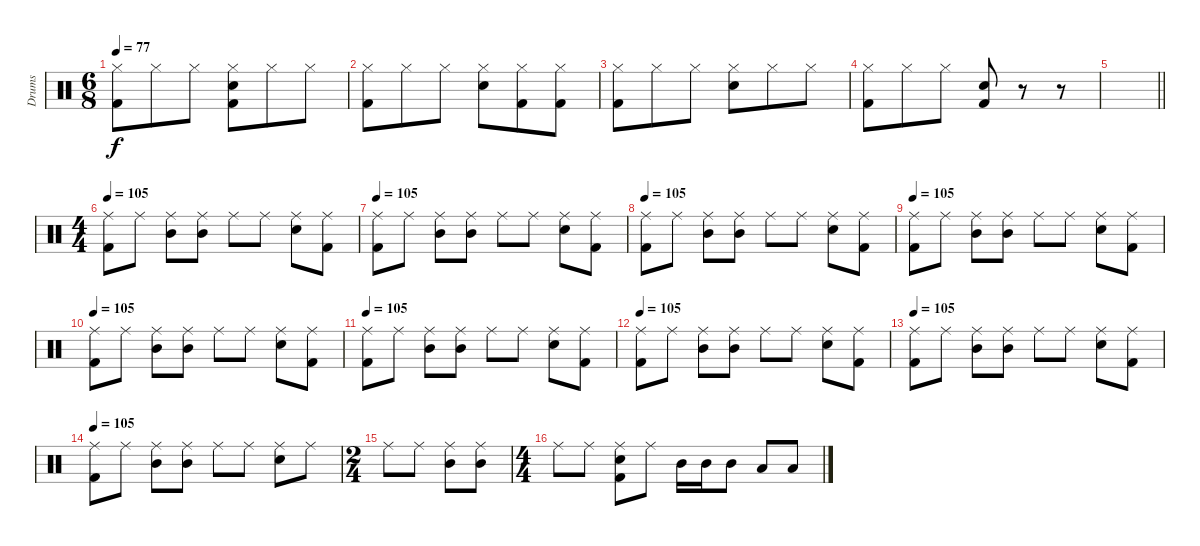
\track ("Drums" "Drums") {instrument percussion}
\staff {score}
\articulation defaults
\ts (6 8)
\tempo 77
\clef neutral
\ks c
("Hi-Hat (closed)" "Kick (hit) 2").8{dy f} "Hi-Hat (closed)".8 "Hi-Hat (closed)".8 ("Hi-Hat (closed)" "Snare (hit) 2" "Kick (hit) 2").8 "Hi-Hat (closed)".8 "Hi-Hat (closed)".8 |
("Hi-Hat (closed)" "Kick (hit) 2").8 "Hi-Hat (closed)".8 "Hi-Hat (closed)".8 ("Hi-Hat (closed)" "Snare (hit) 2").8 ("Hi-Hat (closed)" "Kick (hit) 2").8 ("Hi-Hat (closed)" "Kick (hit) 2").8 |
("Hi-Hat (closed)" "Kick (hit) 2").8 "Hi-Hat (closed)".8 "Hi-Hat (closed)".8 ("Hi-Hat (closed)" "Snare (hit) 2").8 "Hi-Hat (closed)".8 "Hi-Hat (closed)".8 |
("Hi-Hat (closed)" "Kick (hit) 2").8 "Hi-Hat (closed)".8 "Hi-Hat (closed)".8 ("Snare (hit) 2" "Kick (hit) 2").8 r.8 r.8 |
\barLineRight lightlight
|
\ts (4 4)
\tempo 105
("Ride (middle)" "Kick (hit) 2").8 "Ride (middle)".8 ("Ride (middle)" "Mid Tom (hit)").8 ("Ride (middle)" "Mid Tom (hit)").8 "Ride (middle)".8 "Ride (middle)".8 ("Ride (middle)" "Snare (hit) 2").8 ("Ride (middle)" "Kick (hit) 2").8 |
\tempo 105
("Ride (middle)" "Kick (hit) 2").8 "Ride (middle)".8 ("Ride (middle)" "Mid Tom (hit)").8 ("Ride (middle)" "Mid Tom (hit)").8 "Ride (middle)".8 "Ride (middle)".8 ("Ride (middle)" "Snare (hit) 2").8 ("Ride (middle)" "Kick (hit) 2").8 |
\tempo 105
("Ride (middle)" "Kick (hit) 2").8 "Ride (middle)".8 ("Ride (middle)" "Mid Tom (hit)").8 ("Ride (middle)" "Mid Tom (hit)").8 "Ride (middle)".8 "Ride (middle)".8 ("Ride (middle)" "Snare (hit) 2").8 ("Ride (middle)" "Kick (hit) 2").8 |
\tempo 105
("Ride (middle)" "Kick (hit) 2").8 "Ride (middle)".8 ("Ride (middle)" "Mid Tom (hit)").8 ("Ride (middle)" "Mid Tom (hit)").8 "Ride (middle)".8 "Ride (middle)".8 ("Ride (middle)" "Snare (hit) 2").8 ("Ride (middle)" "Kick (hit) 2").8 |
\tempo 105
("Ride (middle)" "Kick (hit) 2").8 "Ride (middle)".8 ("Ride (middle)" "Mid Tom (hit)").8 ("Ride (middle)" "Mid Tom (hit)").8 "Ride (middle)".8 "Ride (middle)".8 ("Ride (middle)" "Snare (hit) 2").8 ("Ride (middle)" "Kick (hit) 2").8 |
\tempo 105
("Ride (middle)" "Kick (hit) 2").8 "Ride (middle)".8 ("Ride (middle)" "Mid Tom (hit)").8 ("Ride (middle)" "Mid Tom (hit)").8 "Ride (middle)".8 "Ride (middle)".8 ("Ride (middle)" "Snare (hit) 2").8 ("Ride (middle)" "Kick (hit) 2").8 |
\tempo 105
("Ride (middle)" "Kick (hit) 2").8 "Ride (middle)".8 ("Ride (middle)" "Mid Tom (hit)").8 ("Ride (middle)" "Mid Tom (hit)").8 "Ride (middle)".8 "Ride (middle)".8 ("Ride (middle)" "Snare (hit) 2").8 ("Ride (middle)" "Kick (hit) 2").8 |
\tempo 105
("Ride (middle)" "Kick (hit) 2").8 "Ride (middle)".8 ("Ride (middle)" "Mid Tom (hit)").8 ("Ride (middle)" "Mid Tom (hit)").8 "Ride (middle)".8 "Ride (middle)".8 ("Ride (middle)" "Snare (hit) 2").8 ("Ride (middle)" "Kick (hit) 2").8 |
\tempo 105
("Ride (middle)" "Kick (hit) 2").8 "Ride (middle)".8 ("Ride (middle)" "Mid Tom (hit)").8 ("Ride (middle)" "Mid Tom (hit)").8 "Ride (middle)".8 "Ride (middle)".8 ("Ride (middle)" "Snare (hit) 2").8 "Ride (middle)".8 |
\ts (2 4)
"Ride (middle)".8 "Ride (middle)".8 ("Ride (middle)" "Mid Tom (hit)").8 ("Ride (middle)" "Mid Tom (hit)").8 |
\ts (4 4)
"Ride (middle)".8 "Ride (middle)".8 ("Ride (middle)" "Snare (hit) 2" "Kick (hit) 2").8 "Ride (middle)".8 "Mid Tom (hit)".16 "Mid Tom (hit)".16 "Mid Tom (hit)".8 "Low Floor Tom (hit)".8 "Low Floor Tom (hit)".8
